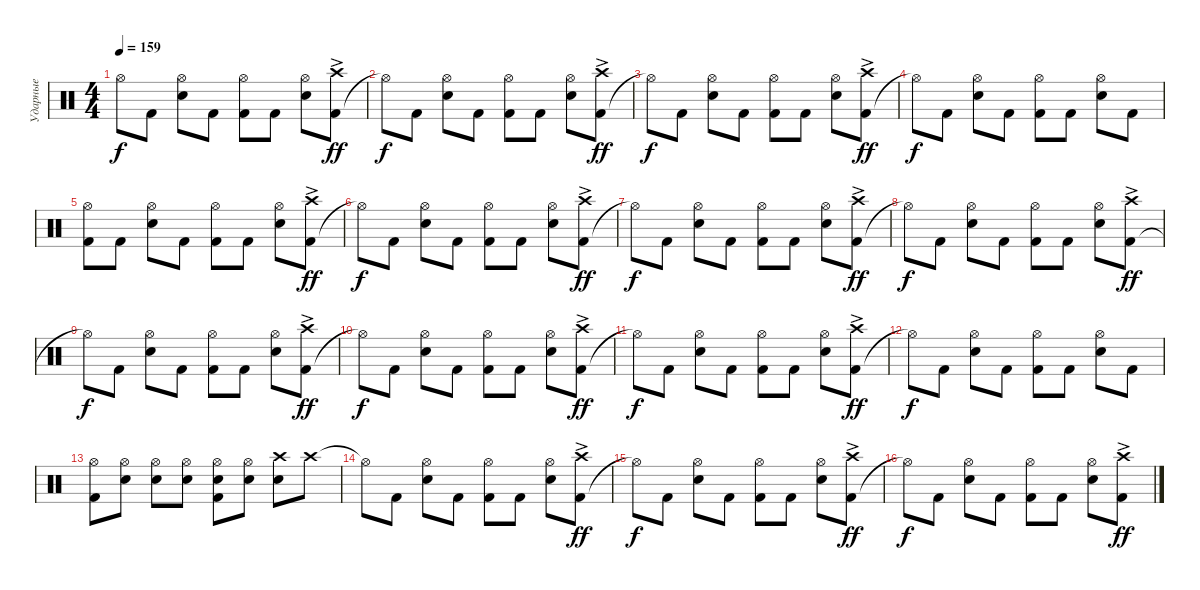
\track ("Ударные" "Ударные") {instrument percussion}
\staff {score}
\articulation defaults
\ts (4 4)
\tempo 159
\clef neutral
\ks c "Hi-Hat (open)"{t}.8{dy f} "Kick (hit) 2".8
("Snare (hit) 2" "Hi-Hat (open)").8 "Kick (hit) 2".8 ("Kick (hit) 2" "Hi-Hat (open)").8 "Kick (hit) 2".8 ("Snare (hit) 2" "Hi-Hat (open)").8 ("Kick (hit) 2" "Crash high (hit)"{ac}).8{dy ff} |
"Hi-Hat (open)"{t}.8{dy f} "Kick (hit) 2".8 ("Snare (hit) 2" "Hi-Hat (open)").8 "Kick (hit) 2".8 ("Kick (hit) 2" "Hi-Hat (open)").8 "Kick (hit) 2".8 ("Snare (hit) 2" "Hi-Hat (open)").8 ("Kick (hit) 2" "Crash high (hit)"{ac}).8{dy ff} |
"Hi-Hat (open)"{t}.8{dy f} "Kick (hit) 2".8 ("Snare (hit) 2" "Hi-Hat (open)").8 "Kick (hit) 2".8 ("Kick (hit) 2" "Hi-Hat (open)").8 "Kick (hit) 2".8 ("Snare (hit) 2" "Hi-Hat (open)").8 ("Kick (hit) 2" "Crash high (hit)"{ac}).8{dy ff} |
"Hi-Hat (open)"{t}.8{dy f} "Kick (hit) 2".8 ("Snare (hit) 2" "Hi-Hat (open)").8 "Kick (hit) 2".8 ("Kick (hit) 2" "Hi-Hat (open)").8 "Kick (hit) 2".8 ("Snare (hit) 2" "Hi-Hat (open)").8 "Kick (hit) 2".8 |
("Kick (hit) 2" "Hi-Hat (open)").8 "Kick (hit) 2".8 ("Snare (hit) 2" "Hi-Hat (open)").8 "Kick (hit) 2".8 ("Kick (hit) 2" "Hi-Hat (open)").8 "Kick (hit) 2".8 ("Snare (hit) 2" "Hi-Hat (open)").8 ("Kick (hit) 2" "Crash high (hit)"{ac}).8{dy ff} |
"Hi-Hat (open)"{t}.8{dy f} "Kick (hit) 2".8 ("Snare (hit) 2" "Hi-Hat (open)").8 "Kick (hit) 2".8 ("Kick (hit) 2" "Hi-Hat (open)").8 "Kick (hit) 2".8 ("Snare (hit) 2" "Hi-Hat (open)").8 ("Kick (hit) 2" "Crash high (hit)"{ac}).8{dy ff} |
"Hi-Hat (open)"{t}.8{dy f} "Kick (hit) 2".8 ("Snare (hit) 2" "Hi-Hat (open)").8 "Kick (hit) 2".8 ("Kick (hit) 2" "Hi-Hat (open)").8 "Kick (hit) 2".8 ("Snare (hit) 2" "Hi-Hat (open)").8 ("Kick (hit) 2" "Crash high (hit)"{ac}).8{dy ff} |
"Hi-Hat (open)"{t}.8{dy f} "Kick (hit) 2".8 ("Snare (hit) 2" "Hi-Hat (open)").8 "Kick (hit) 2".8 ("Kick (hit) 2" "Hi-Hat (open)").8 "Kick (hit) 2".8 ("Snare (hit) 2" "Hi-Hat (open)").8 ("Kick (hit) 2" "Crash high (hit)"{ac}).8{dy ff} |
"Hi-Hat (open)"{t}.8{dy f} "Kick (hit) 2".8 ("Snare (hit) 2" "Hi-Hat (open)").8 "Kick (hit) 2".8 ("Kick (hit) 2" "Hi-Hat (open)").8 "Kick (hit) 2".8 ("Snare (hit) 2" "Hi-Hat (open)").8 ("Kick (hit) 2" "Crash high (hit)"{ac}).8{dy ff} |
"Hi-Hat (open)"{t}.8{dy f} "Kick (hit) 2".8 ("Snare (hit) 2" "Hi-Hat (open)").8 "Kick (hit) 2".8 ("Kick (hit) 2" "Hi-Hat (open)").8 "Kick (hit) 2".8 ("Snare (hit) 2" "Hi-Hat (open)").8 ("Kick (hit) 2" "Crash high (hit)"{ac}).8{dy ff} |
"Hi-Hat (open)"{t}.8{dy f} "Kick (hit) 2".8 ("Snare (hit) 2" "Hi-Hat (open)").8 "Kick (hit) 2".8 ("Kick (hit) 2" "Hi-Hat (open)").8 "Kick (hit) 2".8 ("Snare (hit) 2" "Hi-Hat (open)").8 ("Kick (hit) 2" "Crash high (hit)"{ac}).8{dy ff} |
"Hi-Hat (open)"{t}.8{dy f} "Kick (hit) 2".8 ("Snare (hit) 2" "Hi-Hat (open)").8 "Kick (hit) 2".8 ("Kick (hit) 2" "Hi-Hat (open)").8 "Kick (hit) 2".8 ("Snare (hit) 2" "Hi-Hat (open)").8 "Kick (hit) 2".8 |
("Kick (hit) 2" "Hi-Hat (open)").8 ("Snare (hit) 2" "Hi-Hat (open)").8 ("Snare (hit) 2" "Hi-Hat (open)").8 ("Snare (hit) 2" "Hi-Hat (open)").8 ("Kick (hit) 2" "Snare (hit) 2" "Hi-Hat (open)").8 ("Snare (hit) 2" "Hi-Hat (open)").8 ("Snare (hit) 2" "Crash high (hit)").8 "Crash high (hit)".8 |
"Hi-Hat (open)"{t}.8 "Kick (hit) 2".8 ("Snare (hit) 2" "Hi-Hat (open)").8 "Kick (hit) 2".8 ("Kick (hit) 2" "Hi-Hat (open)").8 "Kick (hit) 2".8 ("Snare (hit) 2" "Hi-Hat (open)").8 ("Kick (hit) 2" "Crash high (hit)"{ac}).8{dy ff} |
"Hi-Hat (open)"{t}.8{dy f} "Kick (hit) 2".8 ("Snare (hit) 2" "Hi-Hat (open)").8 "Kick (hit) 2".8 ("Kick (hit) 2" "Hi-Hat (open)").8 "Kick (hit) 2".8 ("Snare (hit) 2" "Hi-Hat (open)").8 ("Kick (hit) 2" "Crash high (hit)"{ac}).8{dy ff} |
"Hi-Hat (open)"{t}.8{dy f} "Kick (hit) 2".8 ("Snare (hit) 2" "Hi-Hat (open)").8 "Kick (hit) 2".8 ("Kick (hit) 2" "Hi-Hat (open)").8 "Kick (hit) 2".8 ("Snare (hit) 2" "Hi-Hat (open)").8 ("Kick (hit) 2" "Crash high (hit)"{ac}).8{dy ff}
